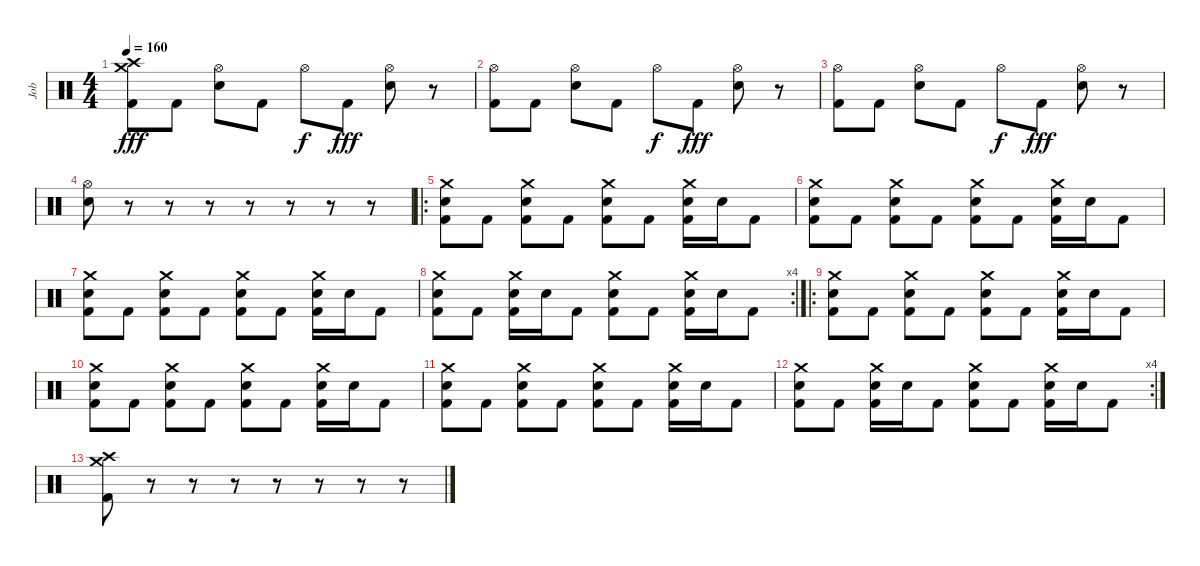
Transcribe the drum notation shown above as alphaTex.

\track ("Job" "Job") {instrument percussion}
\staff {score}
\articulation defaults
\ts (4 4)
\tempo 160
\clef neutral
\ks c
("Crash medium (hit)" "Crash high (hit)" "Kick (hit) 2").8{dy fff} "Kick (hit) 2".8 ("Hi-Hat (open)" "Electric Snare (hit)").8 "Kick (hit) 2".8 "Hi-Hat (open)".8{dy f} "Kick (hit) 2".8{dy fff} ("Hi-Hat (open)" "Electric Snare (hit)").8 r.8 |
("Hi-Hat (open)" "Kick (hit) 2").8 "Kick (hit) 2".8 ("Hi-Hat (open)" "Electric Snare (hit)").8 "Kick (hit) 2".8 "Hi-Hat (open)".8{dy f} "Kick (hit) 2".8{dy fff} ("Hi-Hat (open)" "Electric Snare (hit)").8 r.8 |
("Hi-Hat (open)" "Kick (hit) 2").8 "Kick (hit) 2".8 ("Hi-Hat (open)" "Electric Snare (hit)").8 "Kick (hit) 2".8 "Hi-Hat (open)".8{dy f} "Kick (hit) 2".8{dy fff} ("Hi-Hat (open)" "Electric Snare (hit)").8 r.8 |
("Hi-Hat (open)" "Electric Snare (hit)").8 r.8 r.8 r.8 r.8 r.8 r.8 r.8 |
\ro
("Crash medium (hit)" "Electric Snare (hit)" "Kick (hit) 2").8 "Kick (hit) 2".8 ("Crash medium (hit)" "Electric Snare (hit)" "Kick (hit) 2").8 "Kick (hit) 2".8 ("Crash medium (hit)" "Electric Snare (hit)" "Kick (hit) 2").8 "Kick (hit) 2".8 ("Crash medium (hit)" "Electric Snare (hit)" "Kick (hit) 2").16 "Electric Snare (hit)".16 "Kick (hit) 2".8 |
("Crash medium (hit)" "Electric Snare (hit)" "Kick (hit) 2").8 "Kick (hit) 2".8 ("Crash medium (hit)" "Electric Snare (hit)" "Kick (hit) 2").8 "Kick (hit) 2".8 ("Crash medium (hit)" "Electric Snare (hit)" "Kick (hit) 2").8 "Kick (hit) 2".8 ("Crash medium (hit)" "Electric Snare (hit)" "Kick (hit) 2").16 "Electric Snare (hit)".16 "Kick (hit) 2".8 |
("Crash medium (hit)" "Electric Snare (hit)" "Kick (hit) 2").8 "Kick (hit) 2".8 ("Crash medium (hit)" "Electric Snare (hit)" "Kick (hit) 2").8 "Kick (hit) 2".8 ("Crash medium (hit)" "Electric Snare (hit)" "Kick (hit) 2").8 "Kick (hit) 2".8 ("Crash medium (hit)" "Electric Snare (hit)" "Kick (hit) 2").16 "Electric Snare (hit)".16 "Kick (hit) 2".8 |
\rc 4
("Crash medium (hit)" "Electric Snare (hit)" "Kick (hit) 2").8 "Kick (hit) 2".8 ("Crash medium (hit)" "Electric Snare (hit)" "Kick (hit) 2").16 "Electric Snare (hit)".16 "Kick (hit) 2".8 ("Crash medium (hit)" "Electric Snare (hit)" "Kick (hit) 2").8 "Kick (hit) 2".8 ("Crash medium (hit)" "Electric Snare (hit)" "Kick (hit) 2").16 "Electric Snare (hit)".16 "Kick (hit) 2".8 |
\ro
("Crash medium (hit)" "Electric Snare (hit)" "Kick (hit) 2").8 "Kick (hit) 2".8 ("Crash medium (hit)" "Electric Snare (hit)" "Kick (hit) 2").8 "Kick (hit) 2".8 ("Crash medium (hit)" "Electric Snare (hit)" "Kick (hit) 2").8 "Kick (hit) 2".8 ("Crash medium (hit)" "Electric Snare (hit)" "Kick (hit) 2").16 "Electric Snare (hit)".16 "Kick (hit) 2".8 |
("Crash medium (hit)" "Electric Snare (hit)" "Kick (hit) 2").8 "Kick (hit) 2".8 ("Crash medium (hit)" "Electric Snare (hit)" "Kick (hit) 2").8 "Kick (hit) 2".8 ("Crash medium (hit)" "Electric Snare (hit)" "Kick (hit) 2").8 "Kick (hit) 2".8 ("Crash medium (hit)" "Electric Snare (hit)" "Kick (hit) 2").16 "Electric Snare (hit)".16 "Kick (hit) 2".8 |
("Crash medium (hit)" "Electric Snare (hit)" "Kick (hit) 2").8 "Kick (hit) 2".8 ("Crash medium (hit)" "Electric Snare (hit)" "Kick (hit) 2").8 "Kick (hit) 2".8 ("Crash medium (hit)" "Electric Snare (hit)" "Kick (hit) 2").8 "Kick (hit) 2".8 ("Crash medium (hit)" "Electric Snare (hit)" "Kick (hit) 2").16 "Electric Snare (hit)".16 "Kick (hit) 2".8 |
\rc 4
("Crash medium (hit)" "Electric Snare (hit)" "Kick (hit) 2").8 "Kick (hit) 2".8 ("Crash medium (hit)" "Electric Snare (hit)" "Kick (hit) 2").16 "Electric Snare (hit)".16 "Kick (hit) 2".8 ("Crash medium (hit)" "Electric Snare (hit)" "Kick (hit) 2").8 "Kick (hit) 2".8 ("Crash medium (hit)" "Electric Snare (hit)" "Kick (hit) 2").16 "Electric Snare (hit)".16 "Kick (hit) 2".8 |
("Crash medium (hit)" "Crash high (hit)" "Kick (hit) 2").8 r.8 r.8 r.8 r.8 r.8 r.8 r.8
